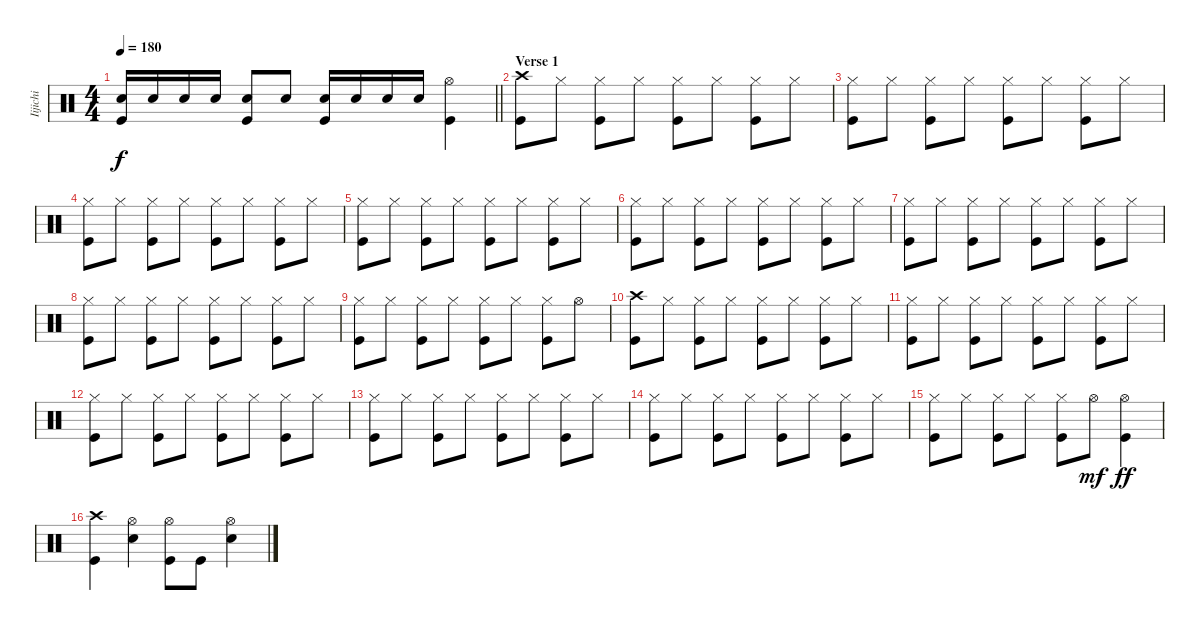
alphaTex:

\track ("Iijichi" "Iijichi") {instrument percussion}
\staff {score}
\articulation defaults
\ts (4 4)
\tempo 180
\clef neutral
\barLineRight lightlight
\ks c
("Kick (hit)" "Electric Snare (hit)").16{dy f} "Electric Snare (hit)".16 "Electric Snare (hit)".16 "Electric Snare (hit)".16 ("Kick (hit)" "Electric Snare (hit)").8 "Electric Snare (hit)".8 ("Kick (hit)" "Electric Snare (hit)").16 "Electric Snare (hit)".16 "Electric Snare (hit)".16 "Electric Snare (hit)".16 ("Kick (hit)" "Hi-Hat (open)").4 |
\section ("" "Verse 1")
("Crash high (hit)" "Kick (hit)").8 "Hi-Hat (closed)".8 ("Hi-Hat (closed)" "Kick (hit)").8 "Hi-Hat (closed)".8 ("Hi-Hat (closed)" "Kick (hit)").8 "Hi-Hat (closed)".8 ("Hi-Hat (closed)" "Kick (hit)").8 "Hi-Hat (closed)".8 |
("Hi-Hat (closed)" "Kick (hit)").8 "Hi-Hat (closed)".8 ("Hi-Hat (closed)" "Kick (hit)").8 "Hi-Hat (closed)".8 ("Hi-Hat (closed)" "Kick (hit)").8 "Hi-Hat (closed)".8 ("Hi-Hat (closed)" "Kick (hit)").8 "Hi-Hat (closed)".8 |
("Hi-Hat (closed)" "Kick (hit)").8 "Hi-Hat (closed)".8 ("Hi-Hat (closed)" "Kick (hit)").8 "Hi-Hat (closed)".8 ("Hi-Hat (closed)" "Kick (hit)").8 "Hi-Hat (closed)".8 ("Hi-Hat (closed)" "Kick (hit)").8 "Hi-Hat (closed)".8 |
("Hi-Hat (closed)" "Kick (hit)").8 "Hi-Hat (closed)".8 ("Hi-Hat (closed)" "Kick (hit)").8 "Hi-Hat (closed)".8 ("Hi-Hat (closed)" "Kick (hit)").8 "Hi-Hat (closed)".8 ("Hi-Hat (closed)" "Kick (hit)").8 "Hi-Hat (closed)".8 |
("Hi-Hat (closed)" "Kick (hit)").8 "Hi-Hat (closed)".8 ("Hi-Hat (closed)" "Kick (hit)").8 "Hi-Hat (closed)".8 ("Hi-Hat (closed)" "Kick (hit)").8 "Hi-Hat (closed)".8 ("Hi-Hat (closed)" "Kick (hit)").8 "Hi-Hat (closed)".8 |
("Hi-Hat (closed)" "Kick (hit)").8 "Hi-Hat (closed)".8 ("Hi-Hat (closed)" "Kick (hit)").8 "Hi-Hat (closed)".8 ("Hi-Hat (closed)" "Kick (hit)").8 "Hi-Hat (closed)".8 ("Hi-Hat (closed)" "Kick (hit)").8 "Hi-Hat (closed)".8 |
("Hi-Hat (closed)" "Kick (hit)").8 "Hi-Hat (closed)".8 ("Hi-Hat (closed)" "Kick (hit)").8 "Hi-Hat (closed)".8 ("Hi-Hat (closed)" "Kick (hit)").8 "Hi-Hat (closed)".8 ("Hi-Hat (closed)" "Kick (hit)").8 "Hi-Hat (closed)".8 |
("Hi-Hat (closed)" "Kick (hit)").8 "Hi-Hat (closed)".8 ("Hi-Hat (closed)" "Kick (hit)").8 "Hi-Hat (closed)".8 ("Hi-Hat (closed)" "Kick (hit)").8 "Hi-Hat (closed)".8 ("Hi-Hat (closed)" "Kick (hit)").8 "Hi-Hat (open)".8 |
("Crash high (hit)" "Kick (hit)").8 "Hi-Hat (closed)".8 ("Hi-Hat (closed)" "Kick (hit)").8 "Hi-Hat (closed)".8 ("Hi-Hat (closed)" "Kick (hit)").8 "Hi-Hat (closed)".8 ("Hi-Hat (closed)" "Kick (hit)").8 "Hi-Hat (closed)".8 |
("Hi-Hat (closed)" "Kick (hit)").8 "Hi-Hat (closed)".8 ("Hi-Hat (closed)" "Kick (hit)").8 "Hi-Hat (closed)".8 ("Hi-Hat (closed)" "Kick (hit)").8 "Hi-Hat (closed)".8 ("Hi-Hat (closed)" "Kick (hit)").8 "Hi-Hat (closed)".8 |
("Hi-Hat (closed)" "Kick (hit)").8 "Hi-Hat (closed)".8 ("Hi-Hat (closed)" "Kick (hit)").8 "Hi-Hat (closed)".8 ("Hi-Hat (closed)" "Kick (hit)").8 "Hi-Hat (closed)".8 ("Hi-Hat (closed)" "Kick (hit)").8 "Hi-Hat (closed)".8 |
("Hi-Hat (closed)" "Kick (hit)").8 "Hi-Hat (closed)".8 ("Hi-Hat (closed)" "Kick (hit)").8 "Hi-Hat (closed)".8 ("Hi-Hat (closed)" "Kick (hit)").8 "Hi-Hat (closed)".8 ("Hi-Hat (closed)" "Kick (hit)").8 "Hi-Hat (closed)".8 |
("Hi-Hat (closed)" "Kick (hit)").8 "Hi-Hat (closed)".8 ("Hi-Hat (closed)" "Kick (hit)").8 "Hi-Hat (closed)".8 ("Hi-Hat (closed)" "Kick (hit)").8 "Hi-Hat (closed)".8 ("Hi-Hat (closed)" "Kick (hit)").8 "Hi-Hat (closed)".8 |
("Hi-Hat (closed)" "Kick (hit)").8 "Hi-Hat (closed)".8 ("Hi-Hat (closed)" "Kick (hit)").8 "Hi-Hat (closed)".8 ("Hi-Hat (closed)" "Kick (hit)").8 "Hi-Hat (open)".8{dy mf} ("Kick (hit)" "Hi-Hat (open)").4{dy ff} |
("Kick (hit)" "Crash high (hit)").4 ("Electric Snare (hit)" "Hi-Hat (open)").4 ("Kick (hit)" "Hi-Hat (open)").8 "Kick (hit)".8 ("Hi-Hat (open)" "Electric Snare (hit)").4
